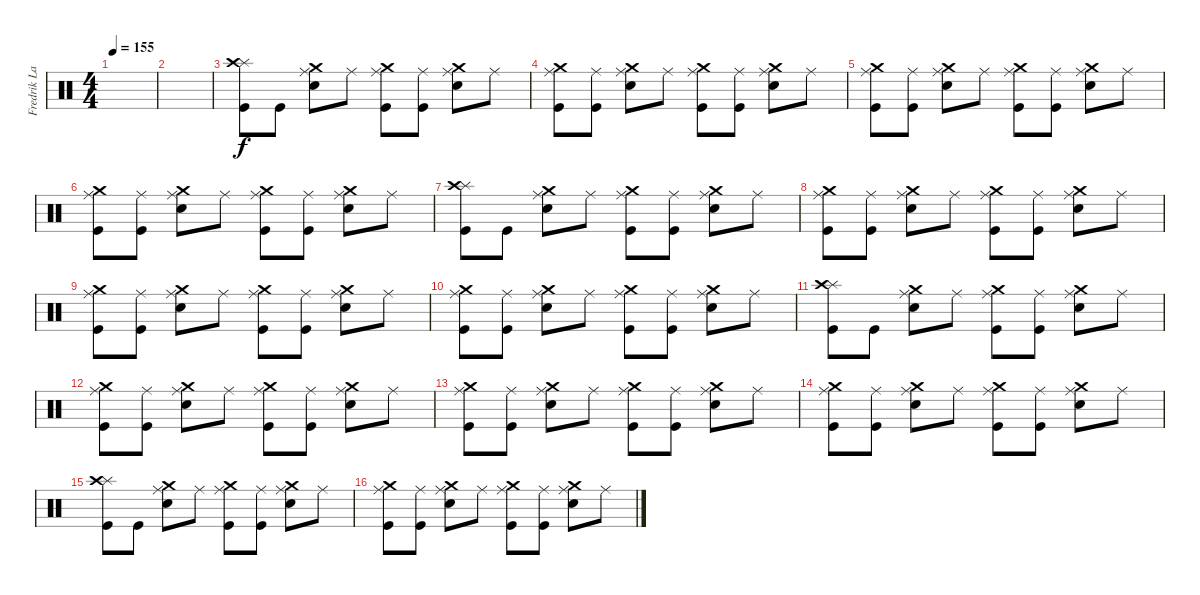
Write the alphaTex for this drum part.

\track ("Fredrik Larzon Drums" "Fredrik La") {instrument percussion}
\staff {score}
\articulation defaults
\ts (4 4)
\tempo 155
\clef neutral
\ks c
|
|
("Splash (hit)" "Crash high (hit)" "Kick (hit)").8 "Kick (hit)".8 ("Ride (middle)" "Crash medium (hit)" "Electric Snare (hit)").8 "Ride (middle)".8 ("Ride (middle)" "Crash medium (hit)" "Kick (hit)").8 ("Ride (middle)" "Kick (hit)").8 ("Ride (middle)" "Crash medium (hit)" "Electric Snare (hit)").8 "Ride (middle)".8 |
("Ride (middle)" "Crash medium (hit)" "Kick (hit)").8 ("Ride (middle)" "Kick (hit)").8 ("Ride (middle)" "Crash medium (hit)" "Electric Snare (hit)").8 "Ride (middle)".8 ("Ride (middle)" "Crash medium (hit)" "Kick (hit)").8 ("Ride (middle)" "Kick (hit)").8 ("Ride (middle)" "Crash medium (hit)" "Electric Snare (hit)").8 "Ride (middle)".8 |
("Ride (middle)" "Crash medium (hit)" "Kick (hit)").8 ("Ride (middle)" "Kick (hit)").8 ("Ride (middle)" "Crash medium (hit)" "Electric Snare (hit)").8 "Ride (middle)".8 ("Ride (middle)" "Crash medium (hit)" "Kick (hit)").8 ("Ride (middle)" "Kick (hit)").8 ("Ride (middle)" "Crash medium (hit)" "Electric Snare (hit)").8 "Ride (middle)".8 |
("Ride (middle)" "Crash medium (hit)" "Kick (hit)").8 ("Ride (middle)" "Kick (hit)").8 ("Ride (middle)" "Crash medium (hit)" "Electric Snare (hit)").8 "Ride (middle)".8 ("Ride (middle)" "Crash medium (hit)" "Kick (hit)").8 ("Ride (middle)" "Kick (hit)").8 ("Ride (middle)" "Crash medium (hit)" "Electric Snare (hit)").8 "Ride (middle)".8 |
("Splash (hit)" "Crash high (hit)" "Kick (hit)").8 "Kick (hit)".8 ("Ride (middle)" "Crash medium (hit)" "Electric Snare (hit)").8 "Ride (middle)".8 ("Ride (middle)" "Crash medium (hit)" "Kick (hit)").8 ("Ride (middle)" "Kick (hit)").8 ("Ride (middle)" "Crash medium (hit)" "Electric Snare (hit)").8 "Ride (middle)".8 |
("Ride (middle)" "Crash medium (hit)" "Kick (hit)").8 ("Ride (middle)" "Kick (hit)").8 ("Ride (middle)" "Crash medium (hit)" "Electric Snare (hit)").8 "Ride (middle)".8 ("Ride (middle)" "Crash medium (hit)" "Kick (hit)").8 ("Ride (middle)" "Kick (hit)").8 ("Ride (middle)" "Crash medium (hit)" "Electric Snare (hit)").8 "Ride (middle)".8 |
("Ride (middle)" "Crash medium (hit)" "Kick (hit)").8 ("Ride (middle)" "Kick (hit)").8 ("Ride (middle)" "Crash medium (hit)" "Electric Snare (hit)").8 "Ride (middle)".8 ("Ride (middle)" "Crash medium (hit)" "Kick (hit)").8 ("Ride (middle)" "Kick (hit)").8 ("Ride (middle)" "Crash medium (hit)" "Electric Snare (hit)").8 "Ride (middle)".8 |
("Ride (middle)" "Crash medium (hit)" "Kick (hit)").8 ("Ride (middle)" "Kick (hit)").8 ("Ride (middle)" "Crash medium (hit)" "Electric Snare (hit)").8 "Ride (middle)".8 ("Ride (middle)" "Crash medium (hit)" "Kick (hit)").8 ("Ride (middle)" "Kick (hit)").8 ("Ride (middle)" "Crash medium (hit)" "Electric Snare (hit)").8 "Ride (middle)".8 |
("Splash (hit)" "Crash high (hit)" "Kick (hit)").8 "Kick (hit)".8 ("Ride (middle)" "Crash medium (hit)" "Electric Snare (hit)").8 "Ride (middle)".8 ("Ride (middle)" "Crash medium (hit)" "Kick (hit)").8 ("Ride (middle)" "Kick (hit)").8 ("Ride (middle)" "Crash medium (hit)" "Electric Snare (hit)").8 "Ride (middle)".8 |
("Ride (middle)" "Crash medium (hit)" "Kick (hit)").8 ("Ride (middle)" "Kick (hit)").8 ("Ride (middle)" "Crash medium (hit)" "Electric Snare (hit)").8 "Ride (middle)".8 ("Ride (middle)" "Crash medium (hit)" "Kick (hit)").8 ("Ride (middle)" "Kick (hit)").8 ("Ride (middle)" "Crash medium (hit)" "Electric Snare (hit)").8 "Ride (middle)".8 |
("Ride (middle)" "Crash medium (hit)" "Kick (hit)").8 ("Ride (middle)" "Kick (hit)").8 ("Ride (middle)" "Crash medium (hit)" "Electric Snare (hit)").8 "Ride (middle)".8 ("Ride (middle)" "Crash medium (hit)" "Kick (hit)").8 ("Ride (middle)" "Kick (hit)").8 ("Ride (middle)" "Crash medium (hit)" "Electric Snare (hit)").8 "Ride (middle)".8 |
("Ride (middle)" "Crash medium (hit)" "Kick (hit)").8 ("Ride (middle)" "Kick (hit)").8 ("Ride (middle)" "Crash medium (hit)" "Electric Snare (hit)").8 "Ride (middle)".8 ("Ride (middle)" "Crash medium (hit)" "Kick (hit)").8 ("Ride (middle)" "Kick (hit)").8 ("Ride (middle)" "Crash medium (hit)" "Electric Snare (hit)").8 "Ride (middle)".8 |
("Splash (hit)" "Crash high (hit)" "Kick (hit)").8 "Kick (hit)".8 ("Ride (middle)" "Crash medium (hit)" "Electric Snare (hit)").8 "Ride (middle)".8 ("Ride (middle)" "Crash medium (hit)" "Kick (hit)").8 ("Ride (middle)" "Kick (hit)").8 ("Ride (middle)" "Crash medium (hit)" "Electric Snare (hit)").8 "Ride (middle)".8 |
("Ride (middle)" "Crash medium (hit)" "Kick (hit)").8 ("Ride (middle)" "Kick (hit)").8 ("Ride (middle)" "Crash medium (hit)" "Electric Snare (hit)").8 "Ride (middle)".8 ("Ride (middle)" "Crash medium (hit)" "Kick (hit)").8 ("Ride (middle)" "Kick (hit)").8 ("Ride (middle)" "Crash medium (hit)" "Electric Snare (hit)").8 "Ride (middle)".8
